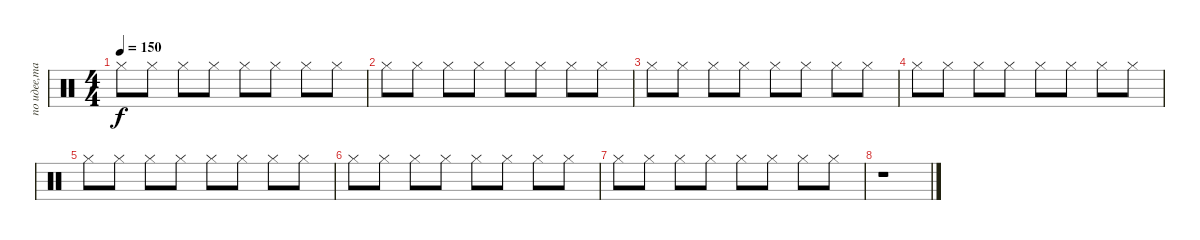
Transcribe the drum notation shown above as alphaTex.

\track ("по идее,там Кулаков...но это Гурьянов:)" "по идее,та") {instrument percussion}
\staff {score}
\articulation defaults
\ts (4 4)
\tempo 150
\clef neutral
\ks c "Hi-Hat (closed)".8{dy f} "Hi-Hat (closed)".8 "Hi-Hat (closed)".8 "Hi-Hat (closed)".8 "Hi-Hat (closed)".8 "Hi-Hat (closed)".8 "Hi-Hat (closed)".8 "Hi-Hat (closed)".8
|
"Hi-Hat (closed)".8 "Hi-Hat (closed)".8 "Hi-Hat (closed)".8 "Hi-Hat (closed)".8 "Hi-Hat (closed)".8 "Hi-Hat (closed)".8 "Hi-Hat (closed)".8 "Hi-Hat (closed)".8 |
"Hi-Hat (closed)".8 "Hi-Hat (closed)".8 "Hi-Hat (closed)".8 "Hi-Hat (closed)".8 "Hi-Hat (closed)".8 "Hi-Hat (closed)".8 "Hi-Hat (closed)".8 "Hi-Hat (closed)".8 |
"Hi-Hat (closed)".8 "Hi-Hat (closed)".8 "Hi-Hat (closed)".8 "Hi-Hat (closed)".8 "Hi-Hat (closed)".8 "Hi-Hat (closed)".8 "Hi-Hat (closed)".8 "Hi-Hat (closed)".8 |
"Hi-Hat (closed)".8 "Hi-Hat (closed)".8 "Hi-Hat (closed)".8 "Hi-Hat (closed)".8 "Hi-Hat (closed)".8 "Hi-Hat (closed)".8 "Hi-Hat (closed)".8 "Hi-Hat (closed)".8 |
"Hi-Hat (closed)".8 "Hi-Hat (closed)".8 "Hi-Hat (closed)".8 "Hi-Hat (closed)".8 "Hi-Hat (closed)".8 "Hi-Hat (closed)".8 "Hi-Hat (closed)".8 "Hi-Hat (closed)".8 |
"Hi-Hat (closed)".8 "Hi-Hat (closed)".8 "Hi-Hat (closed)".8 "Hi-Hat (closed)".8 "Hi-Hat (closed)".8 "Hi-Hat (closed)".8 "Hi-Hat (closed)".8 "Hi-Hat (closed)".8 |
r.1
